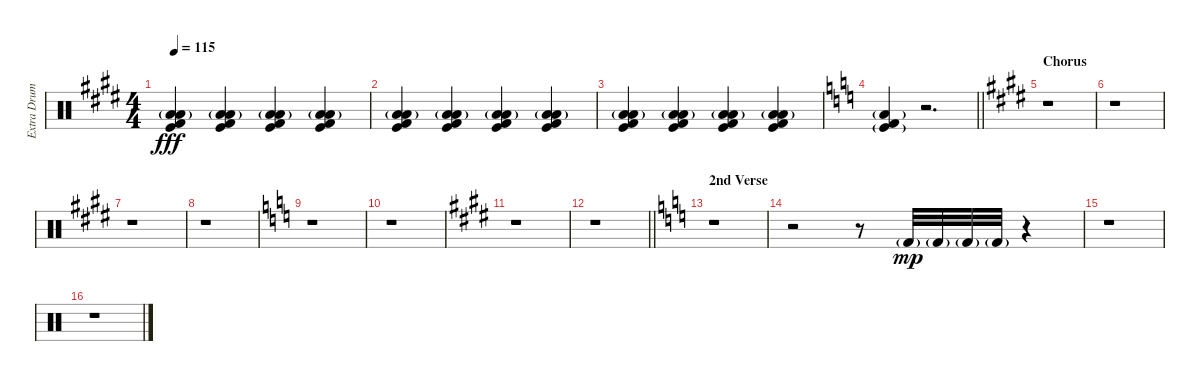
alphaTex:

\track ("Extra Drum" "Extra Drum") {instrument percussion}
\staff {score}
\articulation defaults
\ts (4 4)
\tempo 115
\clef neutral
\ks e
("Low Tom (hit)"{g} "Low Floor Tom (hit)"{g} "Kick (hit)" "Kick (hit) 2").4{dy fff} ("Low Tom (hit)"{g} "Low Floor Tom (hit)"{g} "Kick (hit)" "Kick (hit) 2").4 ("Low Tom (hit)"{g} "Low Floor Tom (hit)"{g} "Kick (hit)" "Kick (hit) 2").4 ("Low Tom (hit)"{g} "Low Floor Tom (hit)"{g} "Kick (hit)" "Kick (hit) 2").4 |
("Low Tom (hit)"{g} "Low Floor Tom (hit)"{g} "Kick (hit)" "Kick (hit) 2").4 ("Low Tom (hit)"{g} "Low Floor Tom (hit)"{g} "Kick (hit)" "Kick (hit) 2").4 ("Low Tom (hit)"{g} "Low Floor Tom (hit)"{g} "Kick (hit)" "Kick (hit) 2").4 ("Low Tom (hit)"{g} "Low Floor Tom (hit)"{g} "Kick (hit)" "Kick (hit) 2").4 |
("Low Tom (hit)"{g} "Low Floor Tom (hit)"{g} "Kick (hit)" "Kick (hit) 2").4 ("Low Tom (hit)"{g} "Low Floor Tom (hit)"{g} "Kick (hit)" "Kick (hit) 2").4 ("Low Tom (hit)"{g} "Low Floor Tom (hit)"{g} "Kick (hit)" "Kick (hit) 2").4 ("Low Tom (hit)"{g} "Low Floor Tom (hit)"{g} "Kick (hit)" "Kick (hit) 2").4 |
\barLineRight lightlight
\ks c
("Low Floor Tom (hit)"{g} "Kick (hit)"{g} "Kick (hit) 2").4 r.2{d} |
\section ("" "Chorus")
\ks e
r.1 |
r.1 |
r.1 |
r.1 |
\ks c
r.1 |
r.1 |
\ks e
r.1 |
\barLineRight lightlight
r.1 |
\section ("" "2nd Verse")
\ks c
r.1 |
r.2 r.8 "Kick (hit) 2"{g}.32{dy mp} "Kick (hit) 2"{g}.32 "Kick (hit) 2"{g}.32 "Kick (hit) 2"{g}.32 r.4 |
r.1 |
r.1
